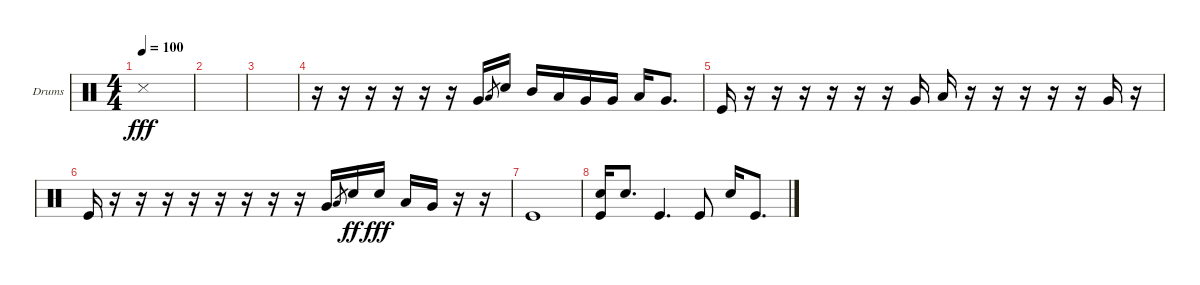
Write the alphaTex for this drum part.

\defaultSystemsLayout 4
\bracketExtendMode groupsimilarinstruments
\firstSystemTrackNameOrientation horizontal
\otherSystemsTrackNameOrientation horizontal
\track ("Drumkit" "Drums") {instrument percussion}
\staff {score}
\articulation defaults
\ts (4 4)
\tempo 100
\clef neutral
\scale
0.472222
\ks c "Snare (side stick) 3".1{dy fff}
|
\scale
0.263889 |
\scale
0.263889 |
\scale
0.333333 r.16 r.16 r.16 r.16 r.16 r.16 "Very Low Tom (hit)".16 "Low Tom (hit)".8{gr} "Snare (hit) 2".16 "Mid Tom (hit)".16 "Low Tom (hit)".16 "Very Low Tom (hit)".16 "Very Low Tom (hit)".16 "Low Tom (hit)".16 "Very Low Tom (hit)".8{d} |
\scale
0.333333 "Kick (hit)".16 r.16 r.16 r.16 r.16 r.16 r.16 "Very Low Tom (hit)".16 "Low Tom (hit)".16 r.16 r.16 r.16 r.16 r.16 "Very Low Tom (hit)".16 r.16 |
\scale
0.333333 "Kick (hit)".16 r.16 r.16 r.16 r.16 r.16 r.16 r.16 r.16 "Very Low Tom (hit)".16 "Low Tom (hit)".8{gr} "Snare (hit) 2".16{dy ff} "Snare (hit) 2".16{dy fff} "Low Tom (hit)".16 "Very Low Tom (hit)".16 r.16 r.16 |
\scale
0.333333 "Kick (hit)".1 |
\scale
0.333333 ("Kick (hit)" "Snare (hit) 2").16 "Snare (hit) 2".8{d} "Kick (hit)".4{d} "Kick (hit)".8 "Snare (hit) 2".16 "Kick (hit)".8{d} |
\scale
0.333333
